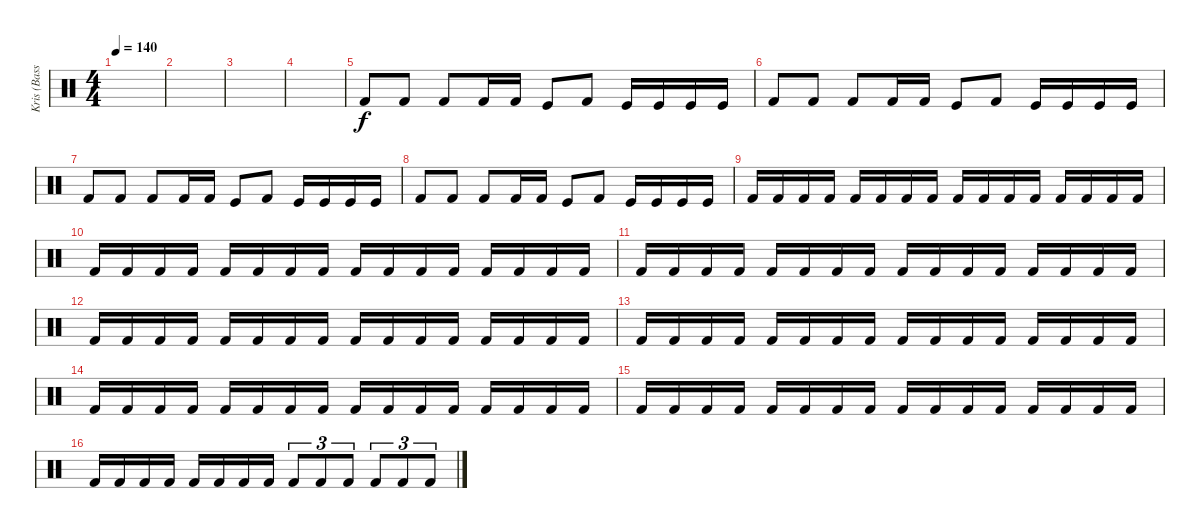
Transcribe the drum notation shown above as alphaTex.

\track ("Kris (Bass Drums)" "Kris (Bass") {instrument percussion}
\staff {score}
\articulation defaults
\ts (4 4)
\tempo 140
\clef neutral
\ks c
|
|
|
|
"Kick (hit) 2".8 "Kick (hit) 2".8 "Kick (hit) 2".8 "Kick (hit) 2".16 "Kick (hit) 2".16 "Kick (hit)".8 "Kick (hit) 2".8 "Kick (hit)".16 "Kick (hit)".16 "Kick (hit)".16 "Kick (hit)".16 |
"Kick (hit) 2".8 "Kick (hit) 2".8 "Kick (hit) 2".8 "Kick (hit) 2".16 "Kick (hit) 2".16 "Kick (hit)".8 "Kick (hit) 2".8 "Kick (hit)".16 "Kick (hit)".16 "Kick (hit)".16 "Kick (hit)".16 |
"Kick (hit) 2".8 "Kick (hit) 2".8 "Kick (hit) 2".8 "Kick (hit) 2".16 "Kick (hit) 2".16 "Kick (hit)".8 "Kick (hit) 2".8 "Kick (hit)".16 "Kick (hit)".16 "Kick (hit)".16 "Kick (hit)".16 |
"Kick (hit) 2".8 "Kick (hit) 2".8 "Kick (hit) 2".8 "Kick (hit) 2".16 "Kick (hit) 2".16 "Kick (hit)".8 "Kick (hit) 2".8 "Kick (hit)".16 "Kick (hit)".16 "Kick (hit)".16 "Kick (hit)".16 |
"Kick (hit) 2".16 "Kick (hit) 2".16 "Kick (hit) 2".16 "Kick (hit) 2".16 "Kick (hit) 2".16 "Kick (hit) 2".16 "Kick (hit) 2".16 "Kick (hit) 2".16 "Kick (hit) 2".16 "Kick (hit) 2".16 "Kick (hit) 2".16 "Kick (hit) 2".16 "Kick (hit) 2".16 "Kick (hit) 2".16 "Kick (hit) 2".16 "Kick (hit) 2".16 |
"Kick (hit) 2".16 "Kick (hit) 2".16 "Kick (hit) 2".16 "Kick (hit) 2".16 "Kick (hit) 2".16 "Kick (hit) 2".16 "Kick (hit) 2".16 "Kick (hit) 2".16 "Kick (hit) 2".16 "Kick (hit) 2".16 "Kick (hit) 2".16 "Kick (hit) 2".16 "Kick (hit) 2".16 "Kick (hit) 2".16 "Kick (hit) 2".16 "Kick (hit) 2".16 |
"Kick (hit) 2".16 "Kick (hit) 2".16 "Kick (hit) 2".16 "Kick (hit) 2".16 "Kick (hit) 2".16 "Kick (hit) 2".16 "Kick (hit) 2".16 "Kick (hit) 2".16 "Kick (hit) 2".16 "Kick (hit) 2".16 "Kick (hit) 2".16 "Kick (hit) 2".16 "Kick (hit) 2".16 "Kick (hit) 2".16 "Kick (hit) 2".16 "Kick (hit) 2".16 |
"Kick (hit) 2".16 "Kick (hit) 2".16 "Kick (hit) 2".16 "Kick (hit) 2".16 "Kick (hit) 2".16 "Kick (hit) 2".16 "Kick (hit) 2".16 "Kick (hit) 2".16 "Kick (hit) 2".16 "Kick (hit) 2".16 "Kick (hit) 2".16 "Kick (hit) 2".16 "Kick (hit) 2".16 "Kick (hit) 2".16 "Kick (hit) 2".16 "Kick (hit) 2".16 |
"Kick (hit) 2".16 "Kick (hit) 2".16 "Kick (hit) 2".16 "Kick (hit) 2".16 "Kick (hit) 2".16 "Kick (hit) 2".16 "Kick (hit) 2".16 "Kick (hit) 2".16 "Kick (hit) 2".16 "Kick (hit) 2".16 "Kick (hit) 2".16 "Kick (hit) 2".16 "Kick (hit) 2".16 "Kick (hit) 2".16 "Kick (hit) 2".16 "Kick (hit) 2".16 |
"Kick (hit) 2".16 "Kick (hit) 2".16 "Kick (hit) 2".16 "Kick (hit) 2".16 "Kick (hit) 2".16 "Kick (hit) 2".16 "Kick (hit) 2".16 "Kick (hit) 2".16 "Kick (hit) 2".16 "Kick (hit) 2".16 "Kick (hit) 2".16 "Kick (hit) 2".16 "Kick (hit) 2".16 "Kick (hit) 2".16 "Kick (hit) 2".16 "Kick (hit) 2".16 |
"Kick (hit) 2".16 "Kick (hit) 2".16 "Kick (hit) 2".16 "Kick (hit) 2".16 "Kick (hit) 2".16 "Kick (hit) 2".16 "Kick (hit) 2".16 "Kick (hit) 2".16 "Kick (hit) 2".16 "Kick (hit) 2".16 "Kick (hit) 2".16 "Kick (hit) 2".16 "Kick (hit) 2".16 "Kick (hit) 2".16 "Kick (hit) 2".16 "Kick (hit) 2".16 |
"Kick (hit) 2".16 "Kick (hit) 2".16 "Kick (hit) 2".16 "Kick (hit) 2".16 "Kick (hit) 2".16 "Kick (hit) 2".16 "Kick (hit) 2".16 "Kick (hit) 2".16 "Kick (hit) 2".8{tu (3 2)} "Kick (hit) 2".8{tu (3 2)} "Kick (hit) 2".8{tu (3 2)} "Kick (hit) 2".8{tu (3 2)} "Kick (hit) 2".8{tu (3 2)} "Kick (hit) 2".8{tu (3 2)}
